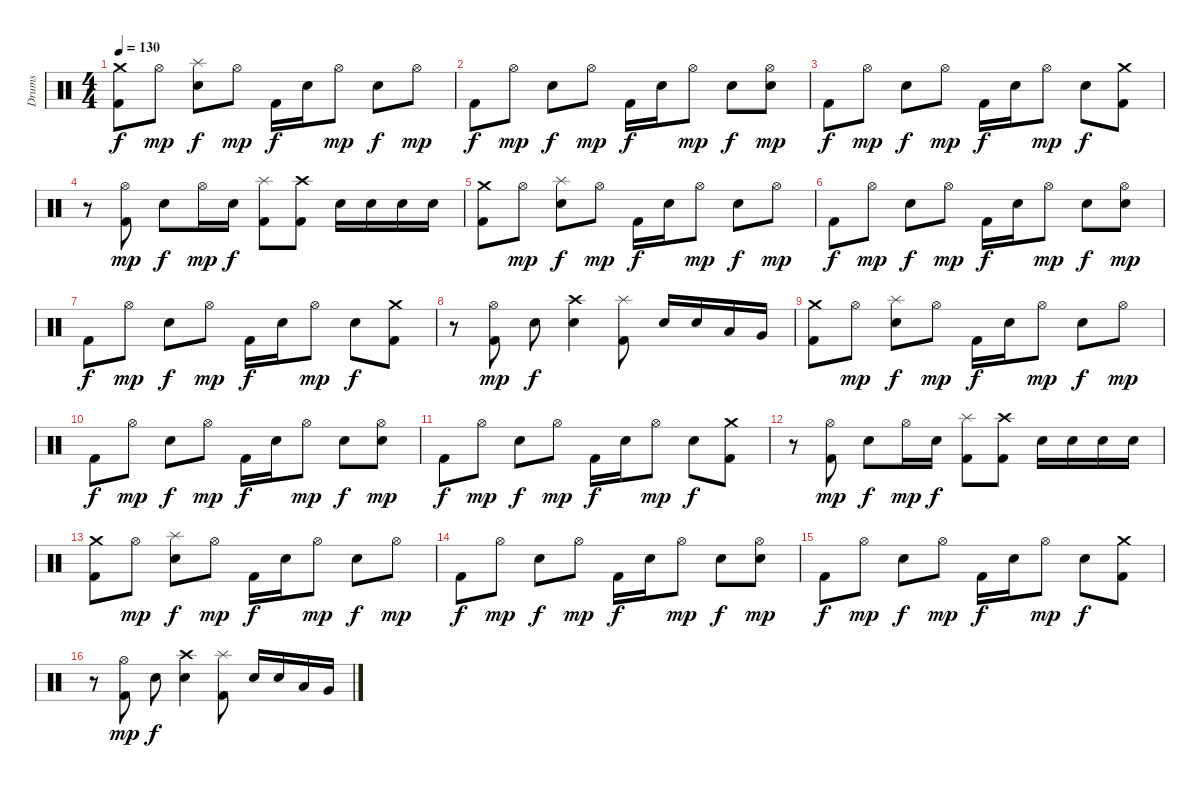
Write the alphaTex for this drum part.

\track ("Drums" "Drums") {instrument percussion}
\staff {score}
\articulation defaults
\ts (4 4)
\tempo 130
\clef neutral
\ks c
("Crash medium (hit)" "Kick (hit) 2").8{dy f} "Hi-Hat (open)".8{dy mp} ("Splash (hit)" "Snare (hit) 2").8{dy f} "Hi-Hat (open)".8{dy mp} "Kick (hit) 2".16{dy f} "Snare (hit) 2".16 "Hi-Hat (open)".8{dy mp} "Snare (hit) 2".8{dy f} "Hi-Hat (open)".8{dy mp} |
"Kick (hit) 2".8{dy f} "Hi-Hat (open)".8{dy mp} "Snare (hit) 2".8{dy f} "Hi-Hat (open)".8{dy mp} "Kick (hit) 2".16{dy f} "Snare (hit) 2".16 "Hi-Hat (open)".8{dy mp} "Snare (hit) 2".8{dy f} ("Hi-Hat (open)" "Snare (hit) 2").8{dy mp} |
"Kick (hit) 2".8{dy f} "Hi-Hat (open)".8{dy mp} "Snare (hit) 2".8{dy f} "Hi-Hat (open)".8{dy mp} "Kick (hit) 2".16{dy f} "Snare (hit) 2".16 "Hi-Hat (open)".8{dy mp} "Snare (hit) 2".8{dy f} ("Crash medium (hit)" "Kick (hit) 2").8 |
r.8 ("Hi-Hat (open)" "Kick (hit) 2").8{dy mp} "Snare (hit) 2".8{dy f} "Hi-Hat (open)".16{dy mp} "Snare (hit) 2".16{dy f} ("Splash (hit)" "Kick (hit) 2").8 ("Crash high (hit)" "Kick (hit) 2").8 "Snare (hit) 2".16 "Snare (hit) 2".16 "Snare (hit) 2".16 "Snare (hit) 2".16 |
("Crash medium (hit)" "Kick (hit) 2").8 "Hi-Hat (open)".8{dy mp} ("Splash (hit)" "Snare (hit) 2").8{dy f} "Hi-Hat (open)".8{dy mp} "Kick (hit) 2".16{dy f} "Snare (hit) 2".16 "Hi-Hat (open)".8{dy mp} "Snare (hit) 2".8{dy f} "Hi-Hat (open)".8{dy mp} |
"Kick (hit) 2".8{dy f} "Hi-Hat (open)".8{dy mp} "Snare (hit) 2".8{dy f} "Hi-Hat (open)".8{dy mp} "Kick (hit) 2".16{dy f} "Snare (hit) 2".16 "Hi-Hat (open)".8{dy mp} "Snare (hit) 2".8{dy f} ("Hi-Hat (open)" "Snare (hit) 2").8{dy mp} |
"Kick (hit) 2".8{dy f} "Hi-Hat (open)".8{dy mp} "Snare (hit) 2".8{dy f} "Hi-Hat (open)".8{dy mp} "Kick (hit) 2".16{dy f} "Snare (hit) 2".16 "Hi-Hat (open)".8{dy mp} "Snare (hit) 2".8{dy f} ("Crash medium (hit)" "Kick (hit) 2").8 |
r.8 ("Hi-Hat (open)" "Kick (hit) 2").8{dy mp} "Snare (hit) 2".8{dy f} ("Crash high (hit)" "Snare (hit) 2").4 ("Splash (hit)" "Kick (hit) 2").8 "Snare (hit) 2".16 "Snare (hit) 2".16 "Low Tom (hit)".16 "Very Low Tom (hit)".16 |
("Crash medium (hit)" "Kick (hit) 2").8 "Hi-Hat (open)".8{dy mp} ("Splash (hit)" "Snare (hit) 2").8{dy f} "Hi-Hat (open)".8{dy mp} "Kick (hit) 2".16{dy f} "Snare (hit) 2".16 "Hi-Hat (open)".8{dy mp} "Snare (hit) 2".8{dy f} "Hi-Hat (open)".8{dy mp} |
"Kick (hit) 2".8{dy f} "Hi-Hat (open)".8{dy mp} "Snare (hit) 2".8{dy f} "Hi-Hat (open)".8{dy mp} "Kick (hit) 2".16{dy f} "Snare (hit) 2".16 "Hi-Hat (open)".8{dy mp} "Snare (hit) 2".8{dy f} ("Hi-Hat (open)" "Snare (hit) 2").8{dy mp} |
"Kick (hit) 2".8{dy f} "Hi-Hat (open)".8{dy mp} "Snare (hit) 2".8{dy f} "Hi-Hat (open)".8{dy mp} "Kick (hit) 2".16{dy f} "Snare (hit) 2".16 "Hi-Hat (open)".8{dy mp} "Snare (hit) 2".8{dy f} ("Crash medium (hit)" "Kick (hit) 2").8 |
r.8 ("Hi-Hat (open)" "Kick (hit) 2").8{dy mp} "Snare (hit) 2".8{dy f} "Hi-Hat (open)".16{dy mp} "Snare (hit) 2".16{dy f} ("Splash (hit)" "Kick (hit) 2").8 ("Crash high (hit)" "Kick (hit) 2").8 "Snare (hit) 2".16 "Snare (hit) 2".16 "Snare (hit) 2".16 "Snare (hit) 2".16 |
("Crash medium (hit)" "Kick (hit) 2").8 "Hi-Hat (open)".8{dy mp} ("Splash (hit)" "Snare (hit) 2").8{dy f} "Hi-Hat (open)".8{dy mp} "Kick (hit) 2".16{dy f} "Snare (hit) 2".16 "Hi-Hat (open)".8{dy mp} "Snare (hit) 2".8{dy f} "Hi-Hat (open)".8{dy mp} |
"Kick (hit) 2".8{dy f} "Hi-Hat (open)".8{dy mp} "Snare (hit) 2".8{dy f} "Hi-Hat (open)".8{dy mp} "Kick (hit) 2".16{dy f} "Snare (hit) 2".16 "Hi-Hat (open)".8{dy mp} "Snare (hit) 2".8{dy f} ("Hi-Hat (open)" "Snare (hit) 2").8{dy mp} |
"Kick (hit) 2".8{dy f} "Hi-Hat (open)".8{dy mp} "Snare (hit) 2".8{dy f} "Hi-Hat (open)".8{dy mp} "Kick (hit) 2".16{dy f} "Snare (hit) 2".16 "Hi-Hat (open)".8{dy mp} "Snare (hit) 2".8{dy f} ("Crash medium (hit)" "Kick (hit) 2").8 |
r.8 ("Hi-Hat (open)" "Kick (hit) 2").8{dy mp} "Snare (hit) 2".8{dy f} ("Crash high (hit)" "Snare (hit) 2").4 ("Splash (hit)" "Kick (hit) 2").8 "Snare (hit) 2".16 "Snare (hit) 2".16 "Low Tom (hit)".16 "Very Low Tom (hit)".16
